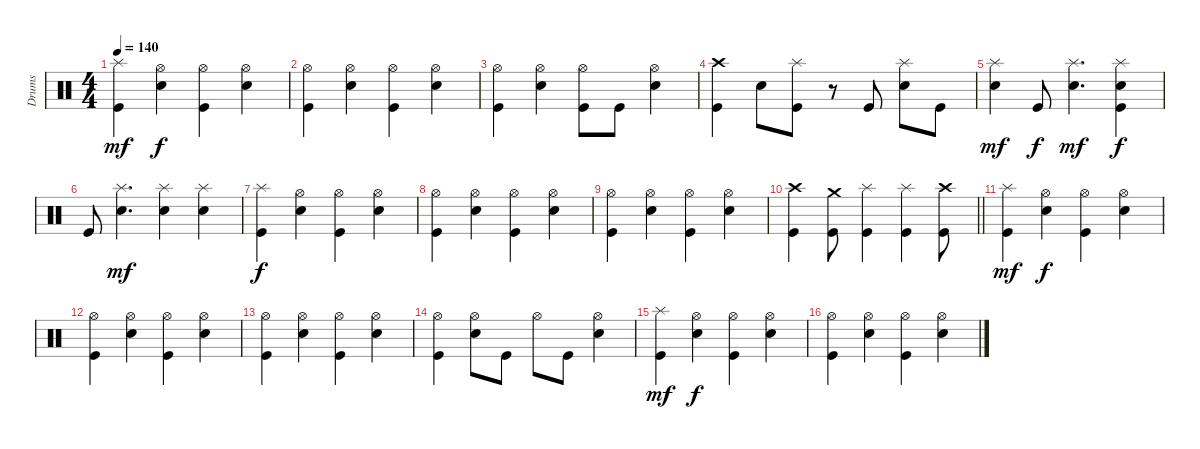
\track ("Drums" "Drums") {instrument percussion}
\staff {score}
\articulation defaults
\ts (4 4)
\tempo 140
\clef neutral
\ks c
("Splash (hit)" "Kick (hit)").4{dy mf} ("Hi-Hat (open)" "Electric Snare (hit)").4{dy f} ("Hi-Hat (open)" "Kick (hit)").4 ("Hi-Hat (open)" "Electric Snare (hit)").4 |
("Hi-Hat (open)" "Kick (hit)").4 ("Hi-Hat (open)" "Electric Snare (hit)").4 ("Hi-Hat (open)" "Kick (hit)").4 ("Hi-Hat (open)" "Electric Snare (hit)").4 |
("Hi-Hat (open)" "Kick (hit)").4 ("Hi-Hat (open)" "Electric Snare (hit)").4 ("Hi-Hat (open)" "Kick (hit)").8 "Kick (hit)".8 ("Hi-Hat (open)" "Electric Snare (hit)").4 |
("Crash high (hit)" "Kick (hit)").4 "Electric Snare (hit)".8 ("Splash (hit)" "Kick (hit)").8 r.8 "Kick (hit)".8 ("Splash (hit)" "Electric Snare (hit)").8 "Kick (hit)".8 |
("Splash (hit)" "Electric Snare (hit)").4{dy mf} "Kick (hit)".8{dy f} ("Splash (hit)" "Electric Snare (hit)").4{d dy mf} ("Kick (hit)" "Splash (hit)" "Electric Snare (hit)").4{dy f} |
"Kick (hit)".8 ("Splash (hit)" "Electric Snare (hit)").4{d dy mf} ("Splash (hit)" "Electric Snare (hit)").4 ("Splash (hit)" "Electric Snare (hit)").4 |
("Splash (hit)" "Kick (hit)").4{dy f} ("Hi-Hat (open)" "Electric Snare (hit)").4 ("Hi-Hat (open)" "Kick (hit)").4 ("Hi-Hat (open)" "Electric Snare (hit)").4 |
("Hi-Hat (open)" "Kick (hit)").4 ("Hi-Hat (open)" "Electric Snare (hit)").4 ("Hi-Hat (open)" "Kick (hit)").4 ("Hi-Hat (open)" "Electric Snare (hit)").4 |
("Hi-Hat (open)" "Kick (hit)").4 ("Hi-Hat (open)" "Electric Snare (hit)").4 ("Hi-Hat (open)" "Kick (hit)").4 ("Hi-Hat (open)" "Electric Snare (hit)").4 |
\barLineRight lightlight
("Crash high (hit)" "Kick (hit)").4 ("Crash medium (hit)" "Kick (hit)").8 ("Splash (hit)" "Kick (hit)").4 ("Splash (hit)" "Kick (hit)").4 ("Crash high (hit)" "Kick (hit)").8 |
\section ("" "")
("Splash (hit)" "Kick (hit)").4{dy mf} ("Hi-Hat (open)" "Electric Snare (hit)").4{dy f} ("Hi-Hat (open)" "Kick (hit)").4 ("Hi-Hat (open)" "Electric Snare (hit)").4 |
("Hi-Hat (open)" "Kick (hit)").4 ("Hi-Hat (open)" "Electric Snare (hit)").4 ("Hi-Hat (open)" "Kick (hit)").4 ("Hi-Hat (open)" "Electric Snare (hit)").4 |
("Hi-Hat (open)" "Kick (hit)").4 ("Hi-Hat (open)" "Electric Snare (hit)").4 ("Hi-Hat (open)" "Kick (hit)").4 ("Hi-Hat (open)" "Electric Snare (hit)").4 |
("Hi-Hat (open)" "Kick (hit)").4 ("Hi-Hat (open)" "Electric Snare (hit)").8 "Kick (hit)".8 "Hi-Hat (open)".8 "Kick (hit)".8 ("Hi-Hat (open)" "Electric Snare (hit)").4 |
("Splash (hit)" "Kick (hit)").4{dy mf} ("Hi-Hat (open)" "Electric Snare (hit)").4{dy f} ("Hi-Hat (open)" "Kick (hit)").4 ("Hi-Hat (open)" "Electric Snare (hit)").4 |
("Hi-Hat (open)" "Kick (hit)").4 ("Hi-Hat (open)" "Electric Snare (hit)").4 ("Hi-Hat (open)" "Kick (hit)").4 ("Hi-Hat (open)" "Electric Snare (hit)").4
